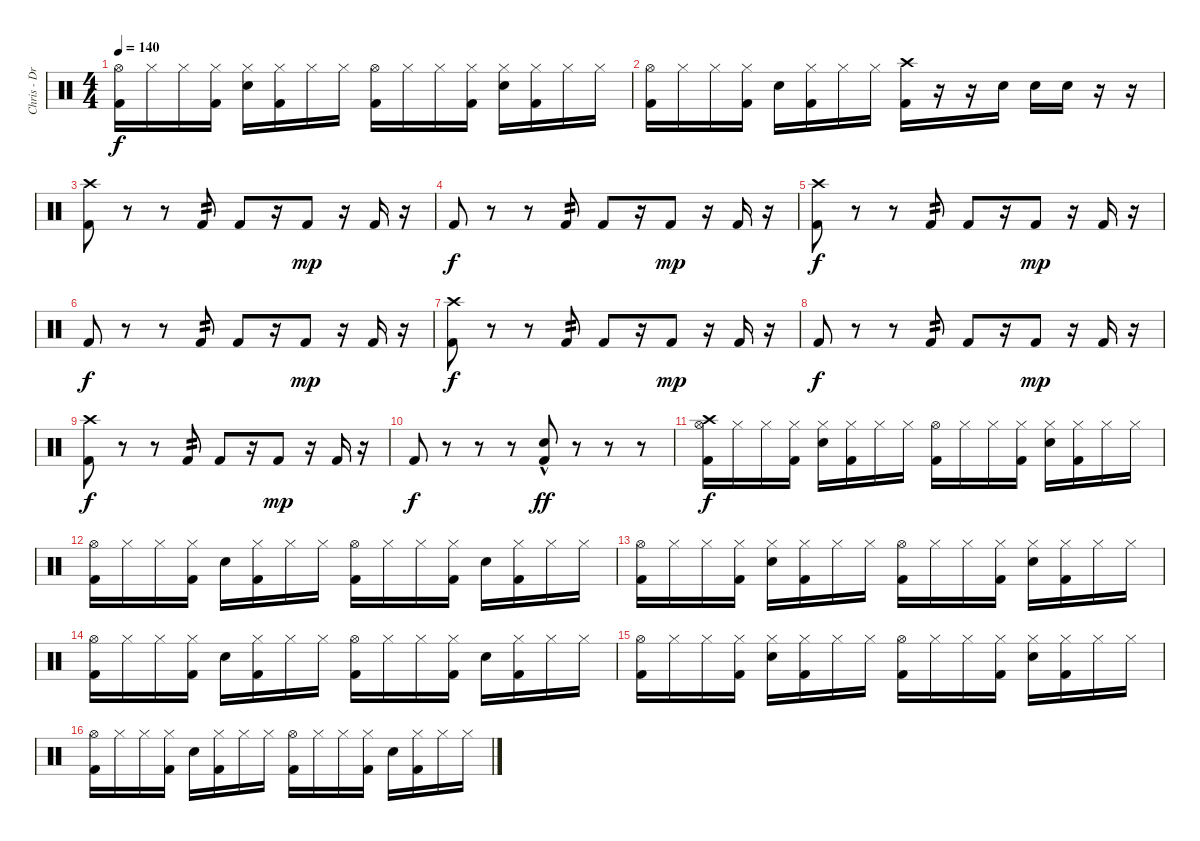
\track ("Chris - Drums" "Chris - Dr") {instrument percussion}
\staff {score}
\articulation defaults
\ts (4 4)
\tempo 140
\clef neutral
\ks c
("Hi-Hat (open)" "Kick (hit) 2").16{dy f} "Hi-Hat (closed)".16 "Hi-Hat (closed)".16 ("Hi-Hat (closed)" "Kick (hit) 2").16 ("Hi-Hat (closed)" "Electric Snare (hit)").16 ("Hi-Hat (closed)" "Kick (hit) 2").16 "Hi-Hat (closed)".16 "Hi-Hat (closed)".16 ("Hi-Hat (open)" "Kick (hit) 2").16 "Hi-Hat (closed)".16 "Hi-Hat (closed)".16 ("Hi-Hat (closed)" "Kick (hit) 2").16 ("Hi-Hat (closed)" "Electric Snare (hit)").16 ("Hi-Hat (closed)" "Kick (hit) 2").16 "Hi-Hat (closed)".16 "Hi-Hat (closed)".16 |
("Hi-Hat (open)" "Kick (hit) 2").16 "Hi-Hat (closed)".16 "Hi-Hat (closed)".16 ("Hi-Hat (closed)" "Kick (hit) 2").16 "Electric Snare (hit)".16 ("Hi-Hat (closed)" "Kick (hit) 2").16 "Hi-Hat (closed)".16 "Hi-Hat (closed)".16 ("Crash high (hit)" "Kick (hit) 2").16 r.16 r.16 "Electric Snare (hit)".16 "Electric Snare (hit)".16 "Electric Snare (hit)".16 r.16 r.16 |
("Crash high (hit)" "Kick (hit) 2").8 r.8 r.8 "Kick (hit) 2".8{tp 2} "Kick (hit) 2".8 r.16 "Kick (hit) 2".8{dy mp} r.16 "Kick (hit) 2".16 r.16 |
"Kick (hit) 2".8{dy f} r.8 r.8 "Kick (hit) 2".8{tp 2} "Kick (hit) 2".8 r.16 "Kick (hit) 2".8{dy mp} r.16 "Kick (hit) 2".16 r.16 |
("Crash high (hit)" "Kick (hit) 2").8{dy f} r.8 r.8 "Kick (hit) 2".8{tp 2} "Kick (hit) 2".8 r.16 "Kick (hit) 2".8{dy mp} r.16 "Kick (hit) 2".16 r.16 |
"Kick (hit) 2".8{dy f} r.8 r.8 "Kick (hit) 2".8{tp 2} "Kick (hit) 2".8 r.16 "Kick (hit) 2".8{dy mp} r.16 "Kick (hit) 2".16 r.16 |
("Crash high (hit)" "Kick (hit) 2").8{dy f} r.8 r.8 "Kick (hit) 2".8{tp 2} "Kick (hit) 2".8 r.16 "Kick (hit) 2".8{dy mp} r.16 "Kick (hit) 2".16 r.16 |
"Kick (hit) 2".8{dy f} r.8 r.8 "Kick (hit) 2".8{tp 2} "Kick (hit) 2".8 r.16 "Kick (hit) 2".8{dy mp} r.16 "Kick (hit) 2".16 r.16 |
("Crash high (hit)" "Kick (hit) 2").8{dy f} r.8 r.8 "Kick (hit) 2".8{tp 2} "Kick (hit) 2".8 r.16 "Kick (hit) 2".8{dy mp} r.16 "Kick (hit) 2".16 r.16 |
"Kick (hit) 2".8{dy f} r.8 r.8 r.8 ("Electric Snare (hit)"{hac} "Kick (hit) 2"{hac}).8{dy ff} r.8 r.8 r.8 |
("Crash high (hit)" "Hi-Hat (open)" "Kick (hit) 2").16{dy f} "Hi-Hat (closed)".16 "Hi-Hat (closed)".16 ("Hi-Hat (closed)" "Kick (hit) 2").16 ("Hi-Hat (closed)" "Electric Snare (hit)").16 ("Hi-Hat (closed)" "Kick (hit) 2").16 "Hi-Hat (closed)".16 "Hi-Hat (closed)".16 ("Hi-Hat (open)" "Kick (hit) 2").16 "Hi-Hat (closed)".16 "Hi-Hat (closed)".16 ("Hi-Hat (closed)" "Kick (hit) 2").16 ("Hi-Hat (closed)" "Electric Snare (hit)").16 ("Hi-Hat (closed)" "Kick (hit) 2").16 "Hi-Hat (closed)".16 "Hi-Hat (closed)".16 |
("Hi-Hat (open)" "Kick (hit) 2").16 "Hi-Hat (closed)".16 "Hi-Hat (closed)".16 ("Hi-Hat (closed)" "Kick (hit) 2").16 "Electric Snare (hit)".16 ("Hi-Hat (closed)" "Kick (hit) 2").16 "Hi-Hat (closed)".16 "Hi-Hat (closed)".16 ("Hi-Hat (open)" "Kick (hit) 2").16 "Hi-Hat (closed)".16 "Hi-Hat (closed)".16 ("Hi-Hat (closed)" "Kick (hit) 2").16 "Electric Snare (hit)".16 ("Hi-Hat (closed)" "Kick (hit) 2").16 "Hi-Hat (closed)".16 "Hi-Hat (closed)".16 |
("Hi-Hat (open)" "Kick (hit) 2").16 "Hi-Hat (closed)".16 "Hi-Hat (closed)".16 ("Hi-Hat (closed)" "Kick (hit) 2").16 ("Hi-Hat (closed)" "Electric Snare (hit)").16 ("Hi-Hat (closed)" "Kick (hit) 2").16 "Hi-Hat (closed)".16 "Hi-Hat (closed)".16 ("Hi-Hat (open)" "Kick (hit) 2").16 "Hi-Hat (closed)".16 "Hi-Hat (closed)".16 ("Hi-Hat (closed)" "Kick (hit) 2").16 ("Hi-Hat (closed)" "Electric Snare (hit)").16 ("Hi-Hat (closed)" "Kick (hit) 2").16 "Hi-Hat (closed)".16 "Hi-Hat (closed)".16 |
("Hi-Hat (open)" "Kick (hit) 2").16 "Hi-Hat (closed)".16 "Hi-Hat (closed)".16 ("Hi-Hat (closed)" "Kick (hit) 2").16 "Electric Snare (hit)".16 ("Hi-Hat (closed)" "Kick (hit) 2").16 "Hi-Hat (closed)".16 "Hi-Hat (closed)".16 ("Hi-Hat (open)" "Kick (hit) 2").16 "Hi-Hat (closed)".16 "Hi-Hat (closed)".16 ("Hi-Hat (closed)" "Kick (hit) 2").16 "Electric Snare (hit)".16 ("Hi-Hat (closed)" "Kick (hit) 2").16 "Hi-Hat (closed)".16 "Hi-Hat (closed)".16 |
("Hi-Hat (open)" "Kick (hit) 2").16 "Hi-Hat (closed)".16 "Hi-Hat (closed)".16 ("Hi-Hat (closed)" "Kick (hit) 2").16 ("Hi-Hat (closed)" "Electric Snare (hit)").16 ("Hi-Hat (closed)" "Kick (hit) 2").16 "Hi-Hat (closed)".16 "Hi-Hat (closed)".16 ("Hi-Hat (open)" "Kick (hit) 2").16 "Hi-Hat (closed)".16 "Hi-Hat (closed)".16 ("Hi-Hat (closed)" "Kick (hit) 2").16 ("Hi-Hat (closed)" "Electric Snare (hit)").16 ("Hi-Hat (closed)" "Kick (hit) 2").16 "Hi-Hat (closed)".16 "Hi-Hat (closed)".16 |
("Hi-Hat (open)" "Kick (hit) 2").16 "Hi-Hat (closed)".16 "Hi-Hat (closed)".16 ("Hi-Hat (closed)" "Kick (hit) 2").16 "Electric Snare (hit)".16 ("Hi-Hat (closed)" "Kick (hit) 2").16 "Hi-Hat (closed)".16 "Hi-Hat (closed)".16 ("Hi-Hat (open)" "Kick (hit) 2").16 "Hi-Hat (closed)".16 "Hi-Hat (closed)".16 ("Hi-Hat (closed)" "Kick (hit) 2").16 "Electric Snare (hit)".16 ("Hi-Hat (closed)" "Kick (hit) 2").16 "Hi-Hat (closed)".16 "Hi-Hat (closed)".16
